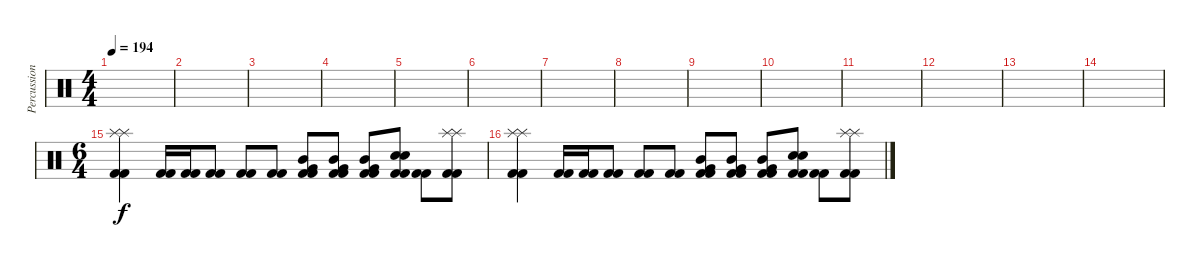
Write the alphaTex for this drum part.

\track ("Percussion" "Percussion") {instrument percussion}
\staff {score}
\articulation defaults
\ts (4 4)
\tempo 194
\clef neutral
\ks c
|
|
|
|
|
|
|
|
|
|
|
|
|
|
\ts (6 4)
("Splash (hit)" "Splash (hit)" "Kick (hit) 2" "Kick (hit) 2").4 ("Kick (hit) 2" "Kick (hit) 2").16 ("Kick (hit) 2" "Kick (hit) 2").16 ("Kick (hit) 2" "Kick (hit) 2").8 ("Kick (hit) 2" "Kick (hit) 2").8 ("Kick (hit) 2" "Kick (hit) 2").8 ("Very Low Tom (hit)" "Mid Tom (hit)" "Kick (hit) 2" "Kick (hit) 2").8 ("Very Low Tom (hit)" "Mid Tom (hit)" "Kick (hit) 2" "Kick (hit) 2").8 ("Very Low Tom (hit)" "Mid Tom (hit)" "Kick (hit) 2" "Kick (hit) 2").8 ("Snare (hit) 2" "Snare (hit) 2" "Kick (hit) 2" "Kick (hit) 2").8 ("Kick (hit) 2" "Kick (hit) 2").8 ("Splash (hit)" "Splash (hit)" "Kick (hit) 2" "Kick (hit) 2").8 |
("Splash (hit)" "Splash (hit)" "Kick (hit) 2" "Kick (hit) 2").4 ("Kick (hit) 2" "Kick (hit) 2").16 ("Kick (hit) 2" "Kick (hit) 2").16 ("Kick (hit) 2" "Kick (hit) 2").8 ("Kick (hit) 2" "Kick (hit) 2").8 ("Kick (hit) 2" "Kick (hit) 2").8 ("Very Low Tom (hit)" "Mid Tom (hit)" "Kick (hit) 2" "Kick (hit) 2").8 ("Very Low Tom (hit)" "Mid Tom (hit)" "Kick (hit) 2" "Kick (hit) 2").8 ("Very Low Tom (hit)" "Mid Tom (hit)" "Kick (hit) 2" "Kick (hit) 2").8 ("Snare (hit) 2" "Snare (hit) 2" "Kick (hit) 2" "Kick (hit) 2").8 ("Kick (hit) 2" "Kick (hit) 2").8 ("Splash (hit)" "Splash (hit)" "Kick (hit) 2" "Kick (hit) 2").8
